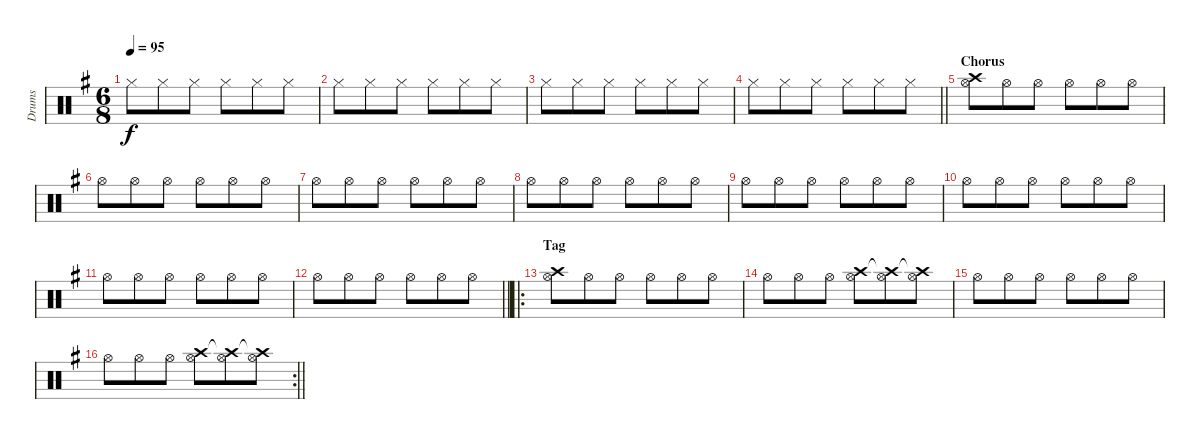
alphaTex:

\track ("Drums" "Drums") {instrument percussion}
\staff {score}
\articulation defaults
\ts (6 8)
\tempo 95
\clef neutral
\ks g "Hi-Hat (closed)".8{dy f} "Hi-Hat (closed)".8 "Hi-Hat (closed)".8 "Hi-Hat (closed)".8 "Hi-Hat (closed)".8 "Hi-Hat (closed)".8
|
"Hi-Hat (closed)".8 "Hi-Hat (closed)".8 "Hi-Hat (closed)".8 "Hi-Hat (closed)".8 "Hi-Hat (closed)".8 "Hi-Hat (closed)".8 |
"Hi-Hat (closed)".8 "Hi-Hat (closed)".8 "Hi-Hat (closed)".8 "Hi-Hat (closed)".8 "Hi-Hat (closed)".8 "Hi-Hat (closed)".8 |
\barLineRight lightlight "Hi-Hat (closed)".8 "Hi-Hat (closed)".8 "Hi-Hat (closed)".8 "Hi-Hat (closed)".8 "Hi-Hat (closed)".8 "Hi-Hat (closed)".8
|
\section ("" "Chorus")
("Hi-Hat (open)" "Crash high (hit)").8 "Hi-Hat (open)".8 "Hi-Hat (open)".8 "Hi-Hat (open)".8 "Hi-Hat (open)".8 "Hi-Hat (open)".8 |
"Hi-Hat (open)".8 "Hi-Hat (open)".8 "Hi-Hat (open)".8 "Hi-Hat (open)".8 "Hi-Hat (open)".8 "Hi-Hat (open)".8 |
"Hi-Hat (open)".8 "Hi-Hat (open)".8 "Hi-Hat (open)".8 "Hi-Hat (open)".8 "Hi-Hat (open)".8 "Hi-Hat (open)".8 |
"Hi-Hat (open)".8 "Hi-Hat (open)".8 "Hi-Hat (open)".8 "Hi-Hat (open)".8 "Hi-Hat (open)".8 "Hi-Hat (open)".8 |
"Hi-Hat (open)".8 "Hi-Hat (open)".8 "Hi-Hat (open)".8 "Hi-Hat (open)".8 "Hi-Hat (open)".8 "Hi-Hat (open)".8 |
"Hi-Hat (open)".8 "Hi-Hat (open)".8 "Hi-Hat (open)".8 "Hi-Hat (open)".8 "Hi-Hat (open)".8 "Hi-Hat (open)".8 |
"Hi-Hat (open)".8 "Hi-Hat (open)".8 "Hi-Hat (open)".8 "Hi-Hat (open)".8 "Hi-Hat (open)".8 "Hi-Hat (open)".8 |
\barLineRight lightlight "Hi-Hat (open)".8 "Hi-Hat (open)".8 "Hi-Hat (open)".8 "Hi-Hat (open)".8 "Hi-Hat (open)".8 "Hi-Hat (open)".8
|
\ro
\section ("" "Tag")
("Hi-Hat (open)" "Crash high (hit)").8 "Hi-Hat (open)".8 "Hi-Hat (open)".8 "Hi-Hat (open)".8 "Hi-Hat (open)".8 "Hi-Hat (open)".8 |
"Hi-Hat (open)".8 "Hi-Hat (open)".8 "Hi-Hat (open)".8 ("Hi-Hat (open)" "Crash high (hit)").8 ("Hi-Hat (open)" "Crash high (hit)"{t}).8 ("Hi-Hat (open)" "Crash high (hit)"{t}).8 |
"Hi-Hat (open)".8 "Hi-Hat (open)".8 "Hi-Hat (open)".8 "Hi-Hat (open)".8 "Hi-Hat (open)".8 "Hi-Hat (open)".8 |
\rc 2
\barLineRight lightlight "Hi-Hat (open)".8 "Hi-Hat (open)".8 "Hi-Hat (open)".8
("Hi-Hat (open)" "Crash high (hit)").8 ("Hi-Hat (open)" "Crash high (hit)"{t}).8 ("Hi-Hat (open)" "Crash high (hit)"{t}).8
